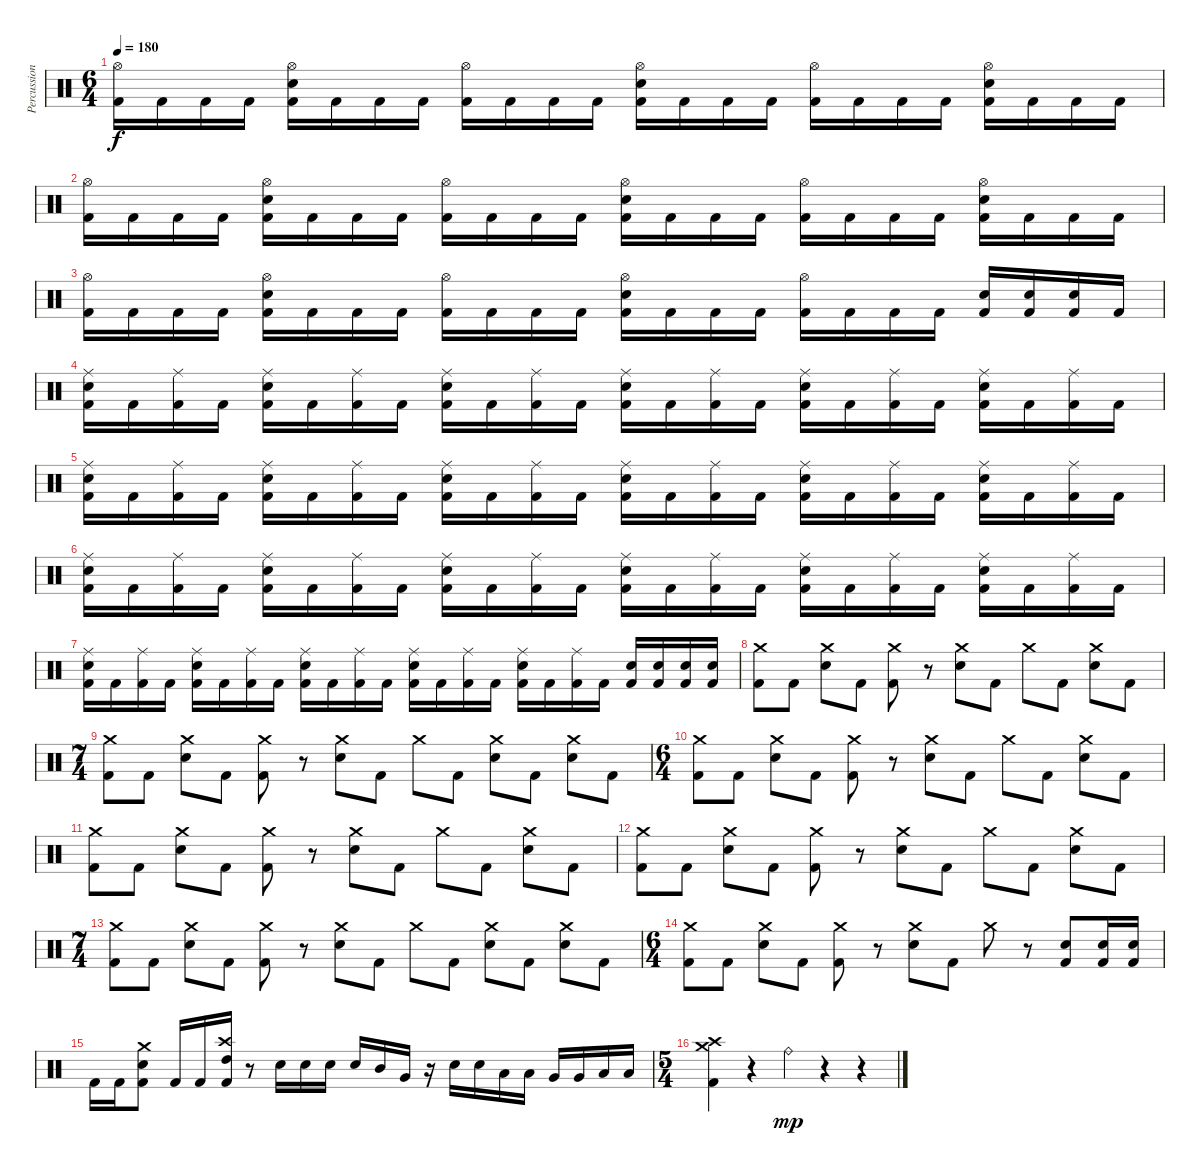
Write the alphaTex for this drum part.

\track ("Percussion" "Percussion") {instrument percussion}
\staff {score}
\articulation defaults
\ts (6 4)
\tempo 180
\clef neutral
\ks c
("Hi-Hat (open)" "Kick (hit) 2").16{dy f} "Kick (hit) 2".16 "Kick (hit) 2".16 "Kick (hit) 2".16 ("Hi-Hat (open)" "Electric Snare (hit)" "Kick (hit) 2").16 "Kick (hit) 2".16 "Kick (hit) 2".16 "Kick (hit) 2".16 ("Hi-Hat (open)" "Kick (hit) 2").16 "Kick (hit) 2".16 "Kick (hit) 2".16 "Kick (hit) 2".16 ("Hi-Hat (open)" "Electric Snare (hit)" "Kick (hit) 2").16 "Kick (hit) 2".16 "Kick (hit) 2".16 "Kick (hit) 2".16 ("Hi-Hat (open)" "Kick (hit) 2").16 "Kick (hit) 2".16 "Kick (hit) 2".16 "Kick (hit) 2".16 ("Hi-Hat (open)" "Electric Snare (hit)" "Kick (hit) 2").16 "Kick (hit) 2".16 "Kick (hit) 2".16 "Kick (hit) 2".16 |
("Hi-Hat (open)" "Kick (hit) 2").16 "Kick (hit) 2".16 "Kick (hit) 2".16 "Kick (hit) 2".16 ("Hi-Hat (open)" "Electric Snare (hit)" "Kick (hit) 2").16 "Kick (hit) 2".16 "Kick (hit) 2".16 "Kick (hit) 2".16 ("Hi-Hat (open)" "Kick (hit) 2").16 "Kick (hit) 2".16 "Kick (hit) 2".16 "Kick (hit) 2".16 ("Hi-Hat (open)" "Electric Snare (hit)" "Kick (hit) 2").16 "Kick (hit) 2".16 "Kick (hit) 2".16 "Kick (hit) 2".16 ("Hi-Hat (open)" "Kick (hit) 2").16 "Kick (hit) 2".16 "Kick (hit) 2".16 "Kick (hit) 2".16 ("Hi-Hat (open)" "Electric Snare (hit)" "Kick (hit) 2").16 "Kick (hit) 2".16 "Kick (hit) 2".16 "Kick (hit) 2".16 |
("Hi-Hat (open)" "Kick (hit) 2").16 "Kick (hit) 2".16 "Kick (hit) 2".16 "Kick (hit) 2".16 ("Hi-Hat (open)" "Electric Snare (hit)" "Kick (hit) 2").16 "Kick (hit) 2".16 "Kick (hit) 2".16 "Kick (hit) 2".16 ("Hi-Hat (open)" "Kick (hit) 2").16 "Kick (hit) 2".16 "Kick (hit) 2".16 "Kick (hit) 2".16 ("Hi-Hat (open)" "Electric Snare (hit)" "Kick (hit) 2").16 "Kick (hit) 2".16 "Kick (hit) 2".16 "Kick (hit) 2".16 ("Hi-Hat (open)" "Kick (hit) 2").16 "Kick (hit) 2".16 "Kick (hit) 2".16 "Kick (hit) 2".16 ("Electric Snare (hit)" "Kick (hit) 2").16 ("Electric Snare (hit)" "Kick (hit) 2").16 ("Electric Snare (hit)" "Kick (hit) 2").16 "Kick (hit) 2".16 |
("Ride (middle)" "Electric Snare (hit)" "Kick (hit) 2").16 "Kick (hit) 2".16 ("Ride (middle)" "Kick (hit) 2").16 "Kick (hit) 2".16 ("Ride (middle)" "Electric Snare (hit)" "Kick (hit) 2").16 "Kick (hit) 2".16 ("Ride (middle)" "Kick (hit) 2").16 "Kick (hit) 2".16 ("Ride (middle)" "Electric Snare (hit)" "Kick (hit) 2").16 "Kick (hit) 2".16 ("Ride (middle)" "Kick (hit) 2").16 "Kick (hit) 2".16 ("Ride (middle)" "Electric Snare (hit)" "Kick (hit) 2").16 "Kick (hit) 2".16 ("Ride (middle)" "Kick (hit) 2").16 "Kick (hit) 2".16 ("Ride (middle)" "Electric Snare (hit)" "Kick (hit) 2").16 "Kick (hit) 2".16 ("Ride (middle)" "Kick (hit) 2").16 "Kick (hit) 2".16 ("Ride (middle)" "Electric Snare (hit)" "Kick (hit) 2").16 "Kick (hit) 2".16 ("Ride (middle)" "Kick (hit) 2").16 "Kick (hit) 2".16 |
("Ride (middle)" "Electric Snare (hit)" "Kick (hit) 2").16 "Kick (hit) 2".16 ("Ride (middle)" "Kick (hit) 2").16 "Kick (hit) 2".16 ("Ride (middle)" "Electric Snare (hit)" "Kick (hit) 2").16 "Kick (hit) 2".16 ("Ride (middle)" "Kick (hit) 2").16 "Kick (hit) 2".16 ("Ride (middle)" "Electric Snare (hit)" "Kick (hit) 2").16 "Kick (hit) 2".16 ("Ride (middle)" "Kick (hit) 2").16 "Kick (hit) 2".16 ("Ride (middle)" "Electric Snare (hit)" "Kick (hit) 2").16 "Kick (hit) 2".16 ("Ride (middle)" "Kick (hit) 2").16 "Kick (hit) 2".16 ("Ride (middle)" "Electric Snare (hit)" "Kick (hit) 2").16 "Kick (hit) 2".16 ("Ride (middle)" "Kick (hit) 2").16 "Kick (hit) 2".16 ("Ride (middle)" "Electric Snare (hit)" "Kick (hit) 2").16 "Kick (hit) 2".16 ("Ride (middle)" "Kick (hit) 2").16 "Kick (hit) 2".16 |
("Ride (middle)" "Electric Snare (hit)" "Kick (hit) 2").16 "Kick (hit) 2".16 ("Ride (middle)" "Kick (hit) 2").16 "Kick (hit) 2".16 ("Ride (middle)" "Electric Snare (hit)" "Kick (hit) 2").16 "Kick (hit) 2".16 ("Ride (middle)" "Kick (hit) 2").16 "Kick (hit) 2".16 ("Ride (middle)" "Electric Snare (hit)" "Kick (hit) 2").16 "Kick (hit) 2".16 ("Ride (middle)" "Kick (hit) 2").16 "Kick (hit) 2".16 ("Ride (middle)" "Electric Snare (hit)" "Kick (hit) 2").16 "Kick (hit) 2".16 ("Ride (middle)" "Kick (hit) 2").16 "Kick (hit) 2".16 ("Ride (middle)" "Electric Snare (hit)" "Kick (hit) 2").16 "Kick (hit) 2".16 ("Ride (middle)" "Kick (hit) 2").16 "Kick (hit) 2".16 ("Ride (middle)" "Electric Snare (hit)" "Kick (hit) 2").16 "Kick (hit) 2".16 ("Ride (middle)" "Kick (hit) 2").16 "Kick (hit) 2".16 |
("Ride (middle)" "Electric Snare (hit)" "Kick (hit) 2").16 "Kick (hit) 2".16 ("Ride (middle)" "Kick (hit) 2").16 "Kick (hit) 2".16 ("Ride (middle)" "Electric Snare (hit)" "Kick (hit) 2").16 "Kick (hit) 2".16 ("Ride (middle)" "Kick (hit) 2").16 "Kick (hit) 2".16 ("Ride (middle)" "Electric Snare (hit)" "Kick (hit) 2").16 "Kick (hit) 2".16 ("Ride (middle)" "Kick (hit) 2").16 "Kick (hit) 2".16 ("Ride (middle)" "Electric Snare (hit)" "Kick (hit) 2").16 "Kick (hit) 2".16 ("Ride (middle)" "Kick (hit) 2").16 "Kick (hit) 2".16 ("Ride (middle)" "Electric Snare (hit)" "Kick (hit) 2").16 "Kick (hit) 2".16 ("Ride (middle)" "Kick (hit) 2").16 "Kick (hit) 2".16 ("Electric Snare (hit)" "Kick (hit) 2").16 ("Electric Snare (hit)" "Kick (hit) 2").16 ("Electric Snare (hit)" "Kick (hit) 2").16 ("Electric Snare (hit)" "Kick (hit) 2").16 |
("Crash medium (hit)" "Kick (hit) 2").8 "Kick (hit) 2".8 ("Crash medium (hit)" "Electric Snare (hit)").8 "Kick (hit) 2".8 ("Crash medium (hit)" "Kick (hit) 2").8 r.8 ("Crash medium (hit)" "Electric Snare (hit)").8 "Kick (hit) 2".8 "Crash medium (hit)".8 "Kick (hit) 2".8 ("Crash medium (hit)" "Electric Snare (hit)").8 "Kick (hit) 2".8 |
\ts (7 4)
("Crash medium (hit)" "Kick (hit) 2").8 "Kick (hit) 2".8 ("Crash medium (hit)" "Electric Snare (hit)").8 "Kick (hit) 2".8 ("Crash medium (hit)" "Kick (hit) 2").8 r.8 ("Crash medium (hit)" "Electric Snare (hit)").8 "Kick (hit) 2".8 "Crash medium (hit)".8 "Kick (hit) 2".8 ("Crash medium (hit)" "Electric Snare (hit)").8 "Kick (hit) 2".8 ("Crash medium (hit)" "Electric Snare (hit)").8 "Kick (hit) 2".8 |
\ts (6 4)
("Crash medium (hit)" "Kick (hit) 2").8 "Kick (hit) 2".8 ("Crash medium (hit)" "Electric Snare (hit)").8 "Kick (hit) 2".8 ("Crash medium (hit)" "Kick (hit) 2").8 r.8 ("Crash medium (hit)" "Electric Snare (hit)").8 "Kick (hit) 2".8 "Crash medium (hit)".8 "Kick (hit) 2".8 ("Crash medium (hit)" "Electric Snare (hit)").8 "Kick (hit) 2".8 |
("Crash medium (hit)" "Kick (hit) 2").8 "Kick (hit) 2".8 ("Crash medium (hit)" "Electric Snare (hit)").8 "Kick (hit) 2".8 ("Crash medium (hit)" "Kick (hit) 2").8 r.8 ("Crash medium (hit)" "Electric Snare (hit)").8 "Kick (hit) 2".8 "Crash medium (hit)".8 "Kick (hit) 2".8 ("Crash medium (hit)" "Electric Snare (hit)").8 "Kick (hit) 2".8 |
("Crash medium (hit)" "Kick (hit) 2").8 "Kick (hit) 2".8 ("Crash medium (hit)" "Electric Snare (hit)").8 "Kick (hit) 2".8 ("Crash medium (hit)" "Kick (hit) 2").8 r.8 ("Crash medium (hit)" "Electric Snare (hit)").8 "Kick (hit) 2".8 "Crash medium (hit)".8 "Kick (hit) 2".8 ("Crash medium (hit)" "Electric Snare (hit)").8 "Kick (hit) 2".8 |
\ts (7 4)
("Crash medium (hit)" "Kick (hit) 2").8 "Kick (hit) 2".8 ("Crash medium (hit)" "Electric Snare (hit)").8 "Kick (hit) 2".8 ("Crash medium (hit)" "Kick (hit) 2").8 r.8 ("Crash medium (hit)" "Electric Snare (hit)").8 "Kick (hit) 2".8 "Crash medium (hit)".8 "Kick (hit) 2".8 ("Crash medium (hit)" "Electric Snare (hit)").8 "Kick (hit) 2".8 ("Crash medium (hit)" "Electric Snare (hit)").8 "Kick (hit) 2".8 |
\ts (6 4)
("Crash medium (hit)" "Kick (hit) 2").8 "Kick (hit) 2".8 ("Crash medium (hit)" "Electric Snare (hit)").8 "Kick (hit) 2".8 ("Crash medium (hit)" "Kick (hit) 2").8 r.8 ("Crash medium (hit)" "Electric Snare (hit)").8 "Kick (hit) 2".8 "Crash medium (hit)".8 r.8 ("Electric Snare (hit)" "Kick (hit) 2").8 ("Electric Snare (hit)" "Kick (hit) 2").16 ("Electric Snare (hit)" "Kick (hit) 2").16 |
"Kick (hit) 2".16 "Kick (hit) 2".16 ("Crash medium (hit)" "Electric Snare (hit)" "Kick (hit) 2").8 "Kick (hit) 2".16 "Kick (hit) 2".16 ("Crash high (hit)" "High Tom (hit)" "Kick (hit) 2").16 r.8 "Electric Snare (hit)".16 "Electric Snare (hit)".16 "Electric Snare (hit)".16 "Electric Snare (hit)".16 "Mid Tom (hit)".16 "Very Low Tom (hit)".16 r.16 "Electric Snare (hit)".16 "Electric Snare (hit)".16 "Low Tom (hit)".16 "Low Tom (hit)".16 "Very Low Tom (hit)".16 "Very Low Tom (hit)".16 "Low Floor Tom (hit)".16 "Low Floor Tom (hit)".16 |
\ts (5 4)
("Crash medium (hit)" "Crash high (hit)" "Kick (hit) 2").4 r.4 "Ride (bell)".4{dy mp} r.4 r.4
